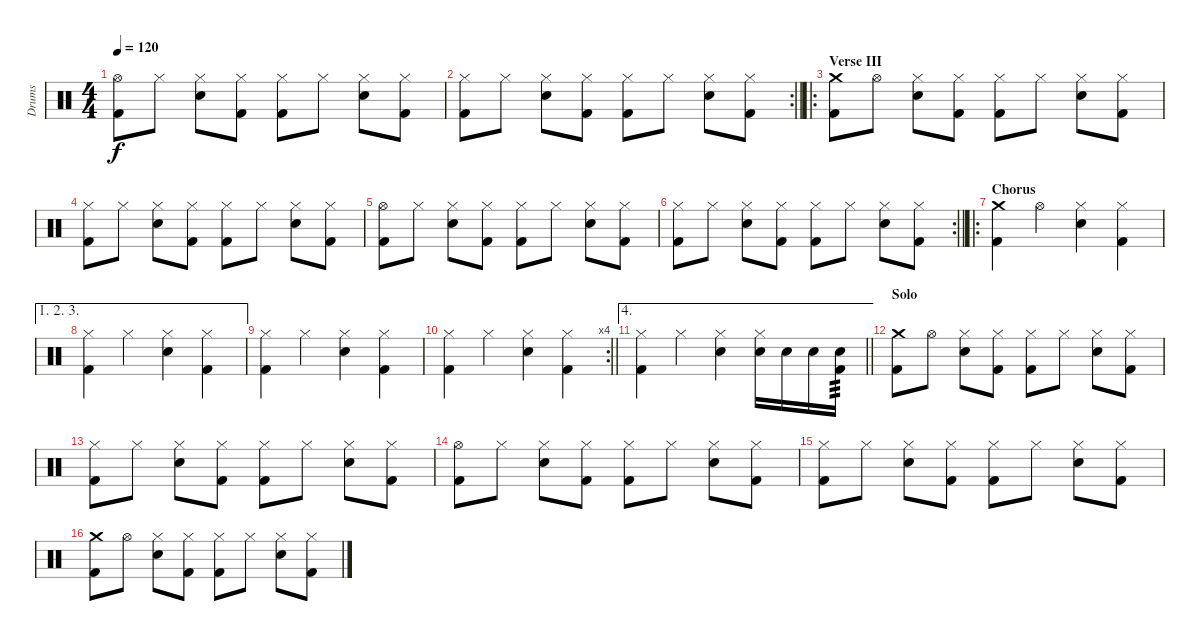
\track ("Drums" "Drums") {instrument percussion}
\staff {score}
\articulation defaults
\ts (4 4)
\tempo 120
\clef neutral
\ks c
("Kick (hit) 2" "Hi-Hat (open)").8{dy f} "Hi-Hat (closed)".8 ("Snare (hit) 2" "Hi-Hat (closed)").8 ("Kick (hit) 2" "Hi-Hat (closed)").8 ("Kick (hit) 2" "Hi-Hat (closed)").8 "Hi-Hat (closed)".8 ("Snare (hit) 2" "Hi-Hat (closed)").8 ("Kick (hit) 2" "Hi-Hat (closed)").8 |
\rc 2
\barLineRight lightlight
("Kick (hit) 2" "Hi-Hat (closed)").8 "Hi-Hat (closed)".8 ("Snare (hit) 2" "Hi-Hat (closed)").8 ("Kick (hit) 2" "Hi-Hat (closed)").8 ("Kick (hit) 2" "Hi-Hat (closed)").8 "Hi-Hat (closed)".8 ("Snare (hit) 2" "Hi-Hat (closed)").8 ("Kick (hit) 2" "Hi-Hat (closed)").8 |
\ro
\section ("" "Verse III")
("Kick (hit) 2" "Crash medium (hit)").8 "Hi-Hat (open)".8 ("Snare (hit) 2" "Hi-Hat (closed)").8 ("Kick (hit) 2" "Hi-Hat (closed)").8 ("Kick (hit) 2" "Hi-Hat (closed)").8 "Hi-Hat (closed)".8 ("Snare (hit) 2" "Hi-Hat (closed)").8 ("Kick (hit) 2" "Hi-Hat (closed)").8 |
("Kick (hit) 2" "Hi-Hat (closed)").8 "Hi-Hat (closed)".8 ("Snare (hit) 2" "Hi-Hat (closed)").8 ("Kick (hit) 2" "Hi-Hat (closed)").8 ("Kick (hit) 2" "Hi-Hat (closed)").8 "Hi-Hat (closed)".8 ("Snare (hit) 2" "Hi-Hat (closed)").8 ("Kick (hit) 2" "Hi-Hat (closed)").8 |
("Kick (hit) 2" "Hi-Hat (open)").8 "Hi-Hat (closed)".8 ("Snare (hit) 2" "Hi-Hat (closed)").8 ("Kick (hit) 2" "Hi-Hat (closed)").8 ("Kick (hit) 2" "Hi-Hat (closed)").8 "Hi-Hat (closed)".8 ("Snare (hit) 2" "Hi-Hat (closed)").8 ("Kick (hit) 2" "Hi-Hat (closed)").8 |
\rc 2
\barLineRight lightlight
("Kick (hit) 2" "Hi-Hat (closed)").8 "Hi-Hat (closed)".8 ("Snare (hit) 2" "Hi-Hat (closed)").8 ("Kick (hit) 2" "Hi-Hat (closed)").8 ("Kick (hit) 2" "Hi-Hat (closed)").8 "Hi-Hat (closed)".8 ("Snare (hit) 2" "Hi-Hat (closed)").8 ("Kick (hit) 2" "Hi-Hat (closed)").8 |
\ro
\section ("" "Chorus")
("Kick (hit) 2" "Crash medium (hit)").4 "Hi-Hat (open)".4 ("Snare (hit) 2" "Hi-Hat (closed)").4 ("Kick (hit) 2" "Hi-Hat (closed)").4 |
\ae (1 2 3)
("Kick (hit) 2" "Hi-Hat (closed)").4 "Hi-Hat (closed)".4 ("Snare (hit) 2" "Hi-Hat (closed)").4 ("Kick (hit) 2" "Hi-Hat (closed)").4 |
("Kick (hit) 2" "Hi-Hat (closed)").4 "Hi-Hat (closed)".4 ("Snare (hit) 2" "Hi-Hat (closed)").4 ("Kick (hit) 2" "Hi-Hat (closed)").4 |
\rc 4
\barLineRight lightlight
("Kick (hit) 2" "Hi-Hat (closed)").4 "Hi-Hat (closed)".4 ("Snare (hit) 2" "Hi-Hat (closed)").4 ("Kick (hit) 2" "Hi-Hat (closed)").4 |
\ae 4
\barLineRight lightlight
("Kick (hit) 2" "Hi-Hat (closed)").4 "Hi-Hat (closed)".4 ("Snare (hit) 2" "Hi-Hat (closed)").4 ("Electric Snare (hit)" "Hi-Hat (closed)").16 "Snare (hit) 2".16 "Electric Snare (hit)".16 ("Kick (hit) 2" "Snare (hit) 2").16{tp 3} |
\section ("" "Solo")
("Kick (hit) 2" "Crash medium (hit)").8 "Hi-Hat (open)".8 ("Snare (hit) 2" "Hi-Hat (closed)").8 ("Kick (hit) 2" "Hi-Hat (closed)").8 ("Kick (hit) 2" "Hi-Hat (closed)").8 "Hi-Hat (closed)".8 ("Snare (hit) 2" "Hi-Hat (closed)").8 ("Kick (hit) 2" "Hi-Hat (closed)").8 |
("Kick (hit) 2" "Hi-Hat (closed)").8 "Hi-Hat (closed)".8 ("Snare (hit) 2" "Hi-Hat (closed)").8 ("Kick (hit) 2" "Hi-Hat (closed)").8 ("Kick (hit) 2" "Hi-Hat (closed)").8 "Hi-Hat (closed)".8 ("Snare (hit) 2" "Hi-Hat (closed)").8 ("Kick (hit) 2" "Hi-Hat (closed)").8 |
("Kick (hit) 2" "Hi-Hat (open)").8 "Hi-Hat (closed)".8 ("Snare (hit) 2" "Hi-Hat (closed)").8 ("Kick (hit) 2" "Hi-Hat (closed)").8 ("Kick (hit) 2" "Hi-Hat (closed)").8 "Hi-Hat (closed)".8 ("Snare (hit) 2" "Hi-Hat (closed)").8 ("Kick (hit) 2" "Hi-Hat (closed)").8 |
("Kick (hit) 2" "Hi-Hat (closed)").8 "Hi-Hat (closed)".8 ("Snare (hit) 2" "Hi-Hat (closed)").8 ("Kick (hit) 2" "Hi-Hat (closed)").8 ("Kick (hit) 2" "Hi-Hat (closed)").8 "Hi-Hat (closed)".8 ("Snare (hit) 2" "Hi-Hat (closed)").8 ("Kick (hit) 2" "Hi-Hat (closed)").8 |
("Kick (hit) 2" "Crash medium (hit)").8 "Hi-Hat (open)".8 ("Snare (hit) 2" "Hi-Hat (closed)").8 ("Kick (hit) 2" "Hi-Hat (closed)").8 ("Kick (hit) 2" "Hi-Hat (closed)").8 "Hi-Hat (closed)".8 ("Snare (hit) 2" "Hi-Hat (closed)").8 ("Kick (hit) 2" "Hi-Hat (closed)").8
